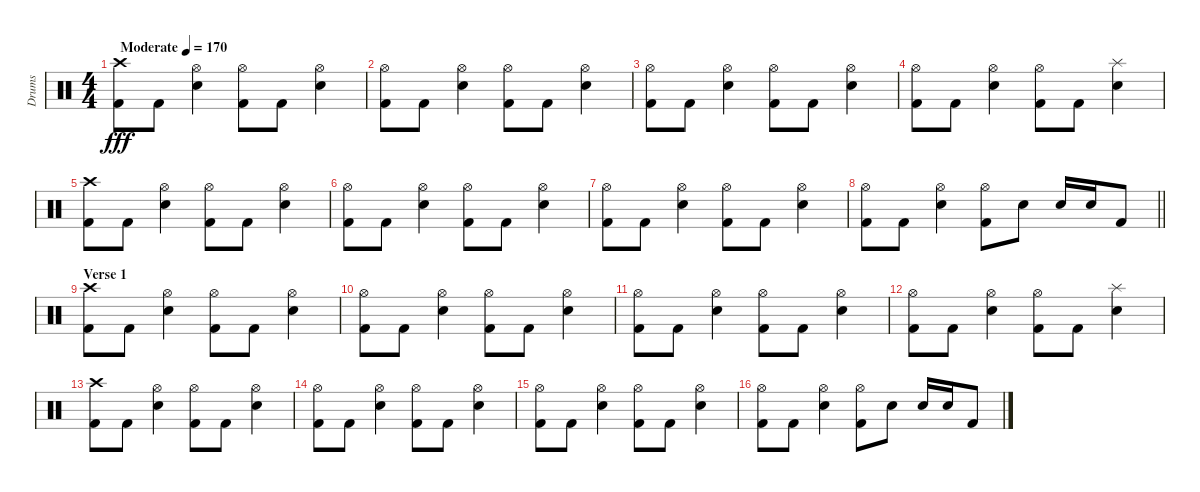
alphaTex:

\track ("Drums" "Drums") {instrument percussion}
\staff {score}
\articulation defaults
\ts (4 4)
\tempo (170 "Moderate")
\clef neutral
\ks c
("Crash high (hit)" "Kick (hit) 2").8{dy fff} "Kick (hit) 2".8 ("Hi-Hat (open)" "Snare (hit) 2").4 ("Hi-Hat (open)" "Kick (hit) 2").8 "Kick (hit) 2".8 ("Hi-Hat (open)" "Snare (hit) 2").4 |
("Hi-Hat (open)" "Kick (hit) 2").8 "Kick (hit) 2".8 ("Hi-Hat (open)" "Snare (hit) 2").4 ("Hi-Hat (open)" "Kick (hit) 2").8 "Kick (hit) 2".8 ("Hi-Hat (open)" "Snare (hit) 2").4 |
("Hi-Hat (open)" "Kick (hit) 2").8 "Kick (hit) 2".8 ("Hi-Hat (open)" "Snare (hit) 2").4 ("Hi-Hat (open)" "Kick (hit) 2").8 "Kick (hit) 2".8 ("Hi-Hat (open)" "Snare (hit) 2").4 |
("Hi-Hat (open)" "Kick (hit) 2").8 "Kick (hit) 2".8 ("Hi-Hat (open)" "Snare (hit) 2").4 ("Hi-Hat (open)" "Kick (hit) 2").8 "Kick (hit) 2".8 ("Splash (hit)" "Snare (hit) 2").4 |
("Crash high (hit)" "Kick (hit) 2").8 "Kick (hit) 2".8 ("Hi-Hat (open)" "Snare (hit) 2").4 ("Hi-Hat (open)" "Kick (hit) 2").8 "Kick (hit) 2".8 ("Hi-Hat (open)" "Snare (hit) 2").4 |
("Hi-Hat (open)" "Kick (hit) 2").8 "Kick (hit) 2".8 ("Hi-Hat (open)" "Snare (hit) 2").4 ("Hi-Hat (open)" "Kick (hit) 2").8 "Kick (hit) 2".8 ("Hi-Hat (open)" "Snare (hit) 2").4 |
("Hi-Hat (open)" "Kick (hit) 2").8 "Kick (hit) 2".8 ("Hi-Hat (open)" "Snare (hit) 2").4 ("Hi-Hat (open)" "Kick (hit) 2").8 "Kick (hit) 2".8 ("Hi-Hat (open)" "Snare (hit) 2").4 |
\barLineRight lightlight
("Hi-Hat (open)" "Kick (hit) 2").8 "Kick (hit) 2".8 ("Hi-Hat (open)" "Snare (hit) 2").4 ("Hi-Hat (open)" "Kick (hit) 2").8 "Snare (hit) 2".8 "Snare (hit) 2".16 "Snare (hit) 2".16 "Kick (hit) 2".8 |
\section ("" "Verse 1")
("Crash high (hit)" "Kick (hit) 2").8 "Kick (hit) 2".8 ("Hi-Hat (open)" "Snare (hit) 2").4 ("Hi-Hat (open)" "Kick (hit) 2").8 "Kick (hit) 2".8 ("Hi-Hat (open)" "Snare (hit) 2").4 |
("Hi-Hat (open)" "Kick (hit) 2").8 "Kick (hit) 2".8 ("Hi-Hat (open)" "Snare (hit) 2").4 ("Hi-Hat (open)" "Kick (hit) 2").8 "Kick (hit) 2".8 ("Hi-Hat (open)" "Snare (hit) 2").4 |
("Hi-Hat (open)" "Kick (hit) 2").8 "Kick (hit) 2".8 ("Hi-Hat (open)" "Snare (hit) 2").4 ("Hi-Hat (open)" "Kick (hit) 2").8 "Kick (hit) 2".8 ("Hi-Hat (open)" "Snare (hit) 2").4 |
("Hi-Hat (open)" "Kick (hit) 2").8 "Kick (hit) 2".8 ("Hi-Hat (open)" "Snare (hit) 2").4 ("Hi-Hat (open)" "Kick (hit) 2").8 "Kick (hit) 2".8 ("Splash (hit)" "Snare (hit) 2").4 |
("Crash high (hit)" "Kick (hit) 2").8 "Kick (hit) 2".8 ("Hi-Hat (open)" "Snare (hit) 2").4 ("Hi-Hat (open)" "Kick (hit) 2").8 "Kick (hit) 2".8 ("Hi-Hat (open)" "Snare (hit) 2").4 |
("Hi-Hat (open)" "Kick (hit) 2").8 "Kick (hit) 2".8 ("Hi-Hat (open)" "Snare (hit) 2").4 ("Hi-Hat (open)" "Kick (hit) 2").8 "Kick (hit) 2".8 ("Hi-Hat (open)" "Snare (hit) 2").4 |
("Hi-Hat (open)" "Kick (hit) 2").8 "Kick (hit) 2".8 ("Hi-Hat (open)" "Snare (hit) 2").4 ("Hi-Hat (open)" "Kick (hit) 2").8 "Kick (hit) 2".8 ("Hi-Hat (open)" "Snare (hit) 2").4 |
("Hi-Hat (open)" "Kick (hit) 2").8 "Kick (hit) 2".8 ("Hi-Hat (open)" "Snare (hit) 2").4 ("Hi-Hat (open)" "Kick (hit) 2").8 "Snare (hit) 2".8 "Snare (hit) 2".16 "Snare (hit) 2".16 "Kick (hit) 2".8
